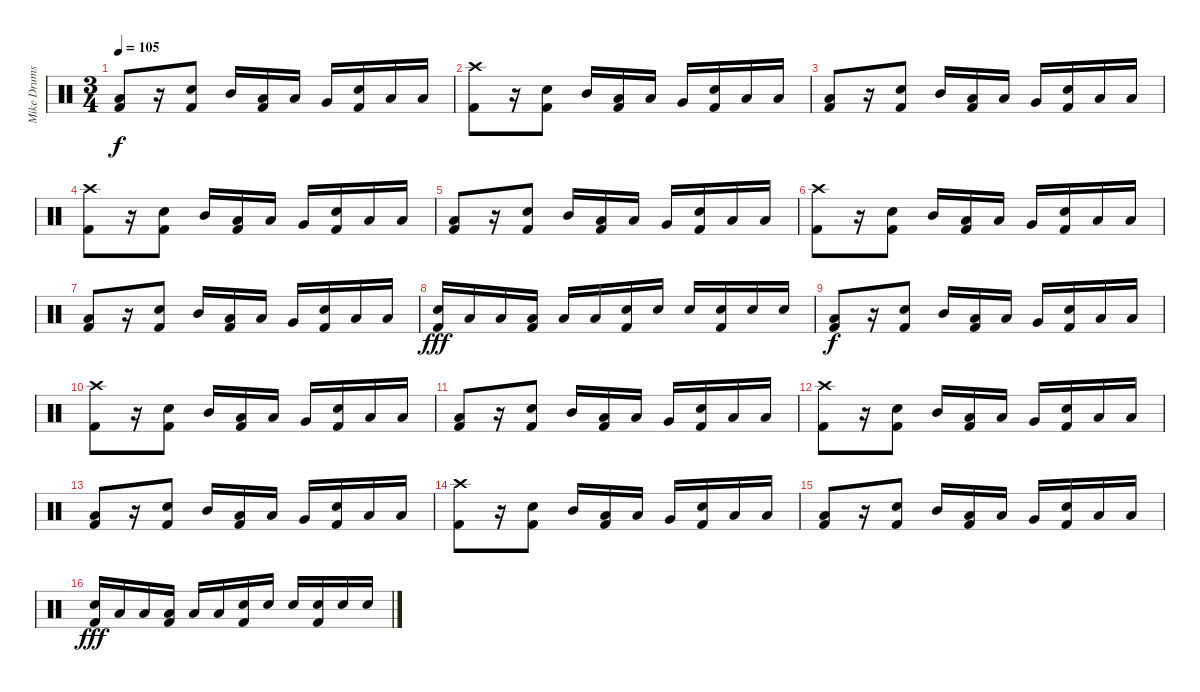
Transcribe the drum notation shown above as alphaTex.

\track ("Mike Drums" "Mike Drums") {instrument percussion}
\staff {score}
\articulation defaults
\ts (3 4)
\tempo 105
\clef neutral
\ks c
("Low Floor Tom (hit)" "Kick (hit) 2").8{dy f} r.16 ("Electric Snare (hit)" "Kick (hit) 2").8 "Mid Tom (hit)".16 ("Low Tom (hit)" "Kick (hit) 2").16 "Low Tom (hit)".16 "Very Low Tom (hit)".16 ("Electric Snare (hit)" "Kick (hit) 2").16 "Low Floor Tom (hit)".16 "Low Floor Tom (hit)".16 |
("Crash high (hit)" "Kick (hit) 2").8 r.16 ("Electric Snare (hit)" "Kick (hit) 2").8 "Mid Tom (hit)".16 ("Low Tom (hit)" "Kick (hit) 2").16 "Low Tom (hit)".16 "Very Low Tom (hit)".16 ("Electric Snare (hit)" "Kick (hit) 2").16 "Low Floor Tom (hit)".16 "Low Floor Tom (hit)".16 |
("Low Floor Tom (hit)" "Kick (hit) 2").8 r.16 ("Electric Snare (hit)" "Kick (hit) 2").8 "Mid Tom (hit)".16 ("Low Tom (hit)" "Kick (hit) 2").16 "Low Tom (hit)".16 "Very Low Tom (hit)".16 ("Electric Snare (hit)" "Kick (hit) 2").16 "Low Floor Tom (hit)".16 "Low Floor Tom (hit)".16 |
("Crash high (hit)" "Kick (hit) 2").8 r.16 ("Electric Snare (hit)" "Kick (hit) 2").8 "Mid Tom (hit)".16 ("Low Tom (hit)" "Kick (hit) 2").16 "Low Tom (hit)".16 "Very Low Tom (hit)".16 ("Electric Snare (hit)" "Kick (hit) 2").16 "Low Floor Tom (hit)".16 "Low Floor Tom (hit)".16 |
("Low Floor Tom (hit)" "Kick (hit) 2").8 r.16 ("Electric Snare (hit)" "Kick (hit) 2").8 "Mid Tom (hit)".16 ("Low Tom (hit)" "Kick (hit) 2").16 "Low Tom (hit)".16 "Very Low Tom (hit)".16 ("Electric Snare (hit)" "Kick (hit) 2").16 "Low Floor Tom (hit)".16 "Low Floor Tom (hit)".16 |
("Crash high (hit)" "Kick (hit) 2").8 r.16 ("Electric Snare (hit)" "Kick (hit) 2").8 "Mid Tom (hit)".16 ("Low Tom (hit)" "Kick (hit) 2").16 "Low Tom (hit)".16 "Very Low Tom (hit)".16 ("Electric Snare (hit)" "Kick (hit) 2").16 "Low Floor Tom (hit)".16 "Low Floor Tom (hit)".16 |
("Low Floor Tom (hit)" "Kick (hit) 2").8 r.16 ("Electric Snare (hit)" "Kick (hit) 2").8 "Mid Tom (hit)".16 ("Low Tom (hit)" "Kick (hit) 2").16 "Low Tom (hit)".16 "Very Low Tom (hit)".16 ("Electric Snare (hit)" "Kick (hit) 2").16 "Low Floor Tom (hit)".16 "Low Floor Tom (hit)".16 |
("Electric Snare (hit)" "Kick (hit) 2").16{dy fff} "Low Floor Tom (hit)".16 "Low Floor Tom (hit)".16 ("Low Floor Tom (hit)" "Kick (hit) 2").16 "Low Floor Tom (hit)".16 "Low Floor Tom (hit)".16 ("Electric Snare (hit)" "Kick (hit) 2").16 "Electric Snare (hit)".16 "Electric Snare (hit)".16 ("Electric Snare (hit)" "Kick (hit) 2").16 "Electric Snare (hit)".16 "Electric Snare (hit)".16 |
("Low Floor Tom (hit)" "Kick (hit) 2").8{dy f} r.16 ("Electric Snare (hit)" "Kick (hit) 2").8 "Mid Tom (hit)".16 ("Low Tom (hit)" "Kick (hit) 2").16 "Low Tom (hit)".16 "Very Low Tom (hit)".16 ("Electric Snare (hit)" "Kick (hit) 2").16 "Low Floor Tom (hit)".16 "Low Floor Tom (hit)".16 |
("Crash high (hit)" "Kick (hit) 2").8 r.16 ("Electric Snare (hit)" "Kick (hit) 2").8 "Mid Tom (hit)".16 ("Low Tom (hit)" "Kick (hit) 2").16 "Low Tom (hit)".16 "Very Low Tom (hit)".16 ("Electric Snare (hit)" "Kick (hit) 2").16 "Low Floor Tom (hit)".16 "Low Floor Tom (hit)".16 |
("Low Floor Tom (hit)" "Kick (hit) 2").8 r.16 ("Electric Snare (hit)" "Kick (hit) 2").8 "Mid Tom (hit)".16 ("Low Tom (hit)" "Kick (hit) 2").16 "Low Tom (hit)".16 "Very Low Tom (hit)".16 ("Electric Snare (hit)" "Kick (hit) 2").16 "Low Floor Tom (hit)".16 "Low Floor Tom (hit)".16 |
("Crash high (hit)" "Kick (hit) 2").8 r.16 ("Electric Snare (hit)" "Kick (hit) 2").8 "Mid Tom (hit)".16 ("Low Tom (hit)" "Kick (hit) 2").16 "Low Tom (hit)".16 "Very Low Tom (hit)".16 ("Electric Snare (hit)" "Kick (hit) 2").16 "Low Floor Tom (hit)".16 "Low Floor Tom (hit)".16 |
("Low Floor Tom (hit)" "Kick (hit) 2").8 r.16 ("Electric Snare (hit)" "Kick (hit) 2").8 "Mid Tom (hit)".16 ("Low Tom (hit)" "Kick (hit) 2").16 "Low Tom (hit)".16 "Very Low Tom (hit)".16 ("Electric Snare (hit)" "Kick (hit) 2").16 "Low Floor Tom (hit)".16 "Low Floor Tom (hit)".16 |
("Crash high (hit)" "Kick (hit) 2").8 r.16 ("Electric Snare (hit)" "Kick (hit) 2").8 "Mid Tom (hit)".16 ("Low Tom (hit)" "Kick (hit) 2").16 "Low Tom (hit)".16 "Very Low Tom (hit)".16 ("Electric Snare (hit)" "Kick (hit) 2").16 "Low Floor Tom (hit)".16 "Low Floor Tom (hit)".16 |
("Low Floor Tom (hit)" "Kick (hit) 2").8 r.16 ("Electric Snare (hit)" "Kick (hit) 2").8 "Mid Tom (hit)".16 ("Low Tom (hit)" "Kick (hit) 2").16 "Low Tom (hit)".16 "Very Low Tom (hit)".16 ("Electric Snare (hit)" "Kick (hit) 2").16 "Low Floor Tom (hit)".16 "Low Floor Tom (hit)".16 |
("Electric Snare (hit)" "Kick (hit) 2").16{dy fff} "Low Floor Tom (hit)".16 "Low Floor Tom (hit)".16 ("Low Floor Tom (hit)" "Kick (hit) 2").16 "Low Floor Tom (hit)".16 "Low Floor Tom (hit)".16 ("Electric Snare (hit)" "Kick (hit) 2").16 "Electric Snare (hit)".16 "Electric Snare (hit)".16 ("Electric Snare (hit)" "Kick (hit) 2").16 "Electric Snare (hit)".16 "Electric Snare (hit)".16
